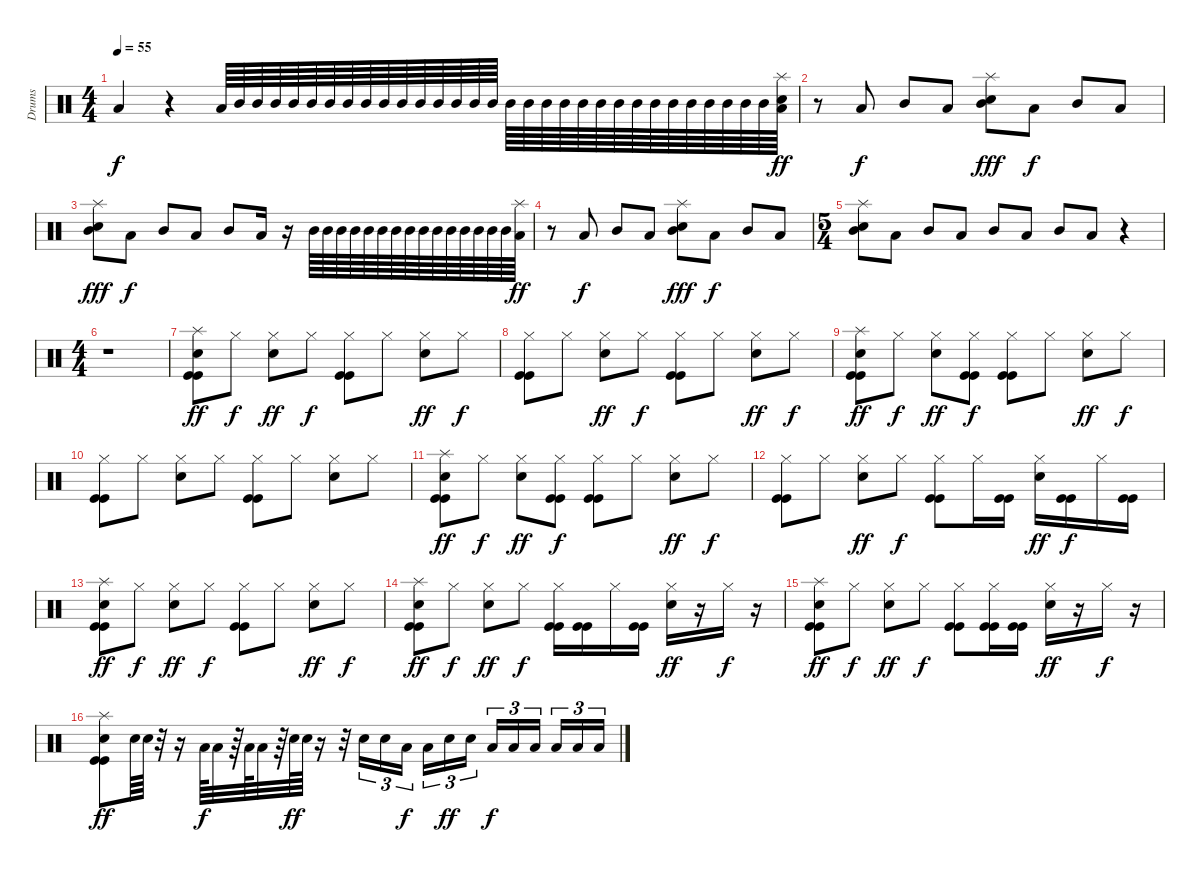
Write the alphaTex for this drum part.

\track ("Drums" "Drums") {instrument percussion}
\staff {score}
\articulation defaults
\ts (4 4)
\tempo 55
\clef neutral
\ks c "Low Tom (hit)".4{dy f}
r.4 "Low Tom (hit)".64 "Mid Tom (hit)".64{volume 10} "Mid Tom (hit)".64{volume 16} "Mid Tom (hit)".64 "Mid Tom (hit)".64 "Mid Tom (hit)".64 "Mid Tom (hit)".64 "Mid Tom (hit)".64 "Mid Tom (hit)".64 "Mid Tom (hit)".64 "Mid Tom (hit)".64 "Mid Tom (hit)".64 "Mid Tom (hit)".64 "Mid Tom (hit)".64 "Mid Tom (hit)".64 "Mid Tom (hit)".64 "Mid Tom (hit)".64 "Mid Tom (hit)".64 "Mid Tom (hit)".64 "Mid Tom (hit)".64 "Mid Tom (hit)".64 "Mid Tom (hit)".64 "Mid Tom (hit)".64 "Mid Tom (hit)".64 "Mid Tom (hit)".64 "Mid Tom (hit)".64 "Mid Tom (hit)".64 "Mid Tom (hit)".64 "Mid Tom (hit)".64 "Mid Tom (hit)".64 "Mid Tom (hit)".64 ("Splash (hit)" "Snare (hit) 2" "Low Tom (hit)").64{dy ff} |
r.8 "Low Tom (hit)".8{dy f} "Mid Tom (hit)".8 "Low Tom (hit)".8 ("Splash (hit)" "Snare (hit) 2" "Mid Tom (hit)").8{dy fff} "Low Tom (hit)".8{dy f} "Mid Tom (hit)".8 "Low Tom (hit)".8 |
("Splash (hit)" "Snare (hit) 2" "Mid Tom (hit)").8{dy fff} "Low Tom (hit)".8{dy f} "Mid Tom (hit)".8 "Low Tom (hit)".8 "Mid Tom (hit)".8 "Low Tom (hit)".16 r.16{volume 10} "Mid Tom (hit)".64{volume 16} "Mid Tom (hit)".64 "Mid Tom (hit)".64 "Mid Tom (hit)".64 "Mid Tom (hit)".64 "Mid Tom (hit)".64 "Mid Tom (hit)".64 "Mid Tom (hit)".64 "Mid Tom (hit)".64 "Mid Tom (hit)".64 "Mid Tom (hit)".64 "Mid Tom (hit)".64 "Mid Tom (hit)".64 "Mid Tom (hit)".64 "Mid Tom (hit)".64 ("Splash (hit)" "Low Tom (hit)").64{dy ff} |
r.8 "Low Tom (hit)".8{dy f} "Mid Tom (hit)".8 "Low Tom (hit)".8 ("Splash (hit)" "Snare (hit) 2" "Mid Tom (hit)").8{dy fff} "Low Tom (hit)".8{dy f} "Mid Tom (hit)".8 "Low Tom (hit)".8 |
\ts (5 4)
("Splash (hit)" "Snare (hit) 2" "Mid Tom (hit)").8 "Low Tom (hit)".8 "Mid Tom (hit)".8 "Low Tom (hit)".8 "Mid Tom (hit)".8 "Low Tom (hit)".8 "Mid Tom (hit)".8 "Low Tom (hit)".8 r.4 |
\ts (4 4)
r.1 |
("Splash (hit)" "Snare (hit) 2" "Kick (hit)" "Kick (hit)").8{dy ff} "Hi-Hat (closed)".8{dy f} ("Hi-Hat (closed)" "Snare (hit) 2").8{dy ff} "Hi-Hat (closed)".8{dy f} ("Hi-Hat (closed)" "Kick (hit)" "Kick (hit)").8 "Hi-Hat (closed)".8 ("Hi-Hat (closed)" "Snare (hit) 2").8{dy ff} "Hi-Hat (closed)".8{dy f} |
("Hi-Hat (closed)" "Kick (hit)" "Kick (hit)").8 "Hi-Hat (closed)".8 ("Hi-Hat (closed)" "Snare (hit) 2").8{dy ff} "Hi-Hat (closed)".8{dy f} ("Hi-Hat (closed)" "Kick (hit)" "Kick (hit)").8 "Hi-Hat (closed)".8 ("Hi-Hat (closed)" "Snare (hit) 2").8{dy ff} "Hi-Hat (closed)".8{dy f} |
("Splash (hit)" "Snare (hit) 2" "Kick (hit)" "Kick (hit)").8{dy ff} "Hi-Hat (closed)".8{dy f} ("Hi-Hat (closed)" "Snare (hit) 2").8{dy ff} ("Hi-Hat (closed)" "Kick (hit)" "Kick (hit)").8{dy f} ("Hi-Hat (closed)" "Kick (hit)" "Kick (hit)").8 "Hi-Hat (closed)".8 ("Hi-Hat (closed)" "Snare (hit) 2").8{dy ff} "Hi-Hat (closed)".8{dy f} |
("Hi-Hat (closed)" "Kick (hit)" "Kick (hit)").8 "Hi-Hat (closed)".8 ("Hi-Hat (closed)" "Snare (hit) 2").8 "Hi-Hat (closed)".8 ("Hi-Hat (closed)" "Kick (hit)" "Kick (hit)").8 "Hi-Hat (closed)".8 ("Hi-Hat (closed)" "Snare (hit) 2").8 "Hi-Hat (closed)".8 |
("Splash (hit)" "Snare (hit) 2" "Kick (hit)" "Kick (hit)").8{dy ff} "Hi-Hat (closed)".8{dy f} ("Hi-Hat (closed)" "Snare (hit) 2").8{dy ff} ("Hi-Hat (closed)" "Kick (hit)" "Kick (hit)").8{dy f} ("Hi-Hat (closed)" "Kick (hit)" "Kick (hit)").8 "Hi-Hat (closed)".8 ("Hi-Hat (closed)" "Snare (hit) 2").8{dy ff} "Hi-Hat (closed)".8{dy f} |
("Hi-Hat (closed)" "Kick (hit)" "Kick (hit)").8 "Hi-Hat (closed)".8 ("Hi-Hat (closed)" "Snare (hit) 2").8{dy ff} "Hi-Hat (closed)".8{dy f} ("Hi-Hat (closed)" "Kick (hit)" "Kick (hit)").8 "Hi-Hat (closed)".16 ("Kick (hit)" "Kick (hit)").16 ("Hi-Hat (closed)" "Snare (hit) 2").16{dy ff} ("Kick (hit)" "Kick (hit)").16{dy f} "Hi-Hat (closed)".16 ("Kick (hit)" "Kick (hit)").16 |
("Splash (hit)" "Snare (hit) 2" "Kick (hit)" "Kick (hit)").8{dy ff} "Hi-Hat (closed)".8{dy f} ("Hi-Hat (closed)" "Snare (hit) 2").8{dy ff} "Hi-Hat (closed)".8{dy f} ("Hi-Hat (closed)" "Kick (hit)" "Kick (hit)").8 "Hi-Hat (closed)".8 ("Hi-Hat (closed)" "Snare (hit) 2").8{dy ff} "Hi-Hat (closed)".8{dy f} |
("Splash (hit)" "Snare (hit) 2" "Kick (hit)" "Kick (hit)").8{dy ff} "Hi-Hat (closed)".8{dy f} ("Hi-Hat (closed)" "Snare (hit) 2").8{dy ff} "Hi-Hat (closed)".8{dy f} ("Hi-Hat (closed)" "Kick (hit)" "Kick (hit)").16 ("Kick (hit)" "Kick (hit)").16 "Hi-Hat (closed)".16 ("Kick (hit)" "Kick (hit)").16 ("Hi-Hat (closed)" "Snare (hit) 2").16{dy ff} r.16 "Hi-Hat (closed)".16{dy f} r.16 |
("Splash (hit)" "Snare (hit) 2" "Kick (hit)" "Kick (hit)").8{dy ff} "Hi-Hat (closed)".8{dy f} ("Hi-Hat (closed)" "Snare (hit) 2").8{dy ff} "Hi-Hat (closed)".8{dy f} ("Hi-Hat (closed)" "Kick (hit)" "Kick (hit)").8 ("Hi-Hat (closed)" "Kick (hit)" "Kick (hit)").16 ("Kick (hit)" "Kick (hit)").16 ("Hi-Hat (closed)" "Snare (hit) 2").16{dy ff} r.16 "Hi-Hat (closed)".16{dy f} r.16 |
("Splash (hit)" "Snare (hit) 2" "Kick (hit)" "Kick (hit)").8{dy ff} "Snare (hit) 2".64 "Snare (hit) 2".64 r.32 r.16 "Low Tom (hit)".64{dy f} "Low Tom (hit)".32 r.64 "Low Tom (hit)".64 "Low Tom (hit)".32 r.64 "Snare (hit) 2".64{dy ff} "Snare (hit) 2".64 r.16 r.32 "Snare (hit) 2".16{tu (3 2)} "Snare (hit) 2".16{tu (3 2)} "Low Tom (hit)".16{tu (3 2) dy f} "Low Tom (hit)".16{tu (3 2)} "Snare (hit) 2".16{tu (3 2) dy ff} "Snare (hit) 2".16{tu (3 2)} "Low Tom (hit)".16{tu (3 2) dy f} "Low Tom (hit)".16{tu (3 2)} "Low Tom (hit)".16{tu (3 2)} "Low Tom (hit)".16{tu (3 2)} "Low Tom (hit)".16{tu (3 2)} "Low Tom (hit)".16{tu (3 2)}
